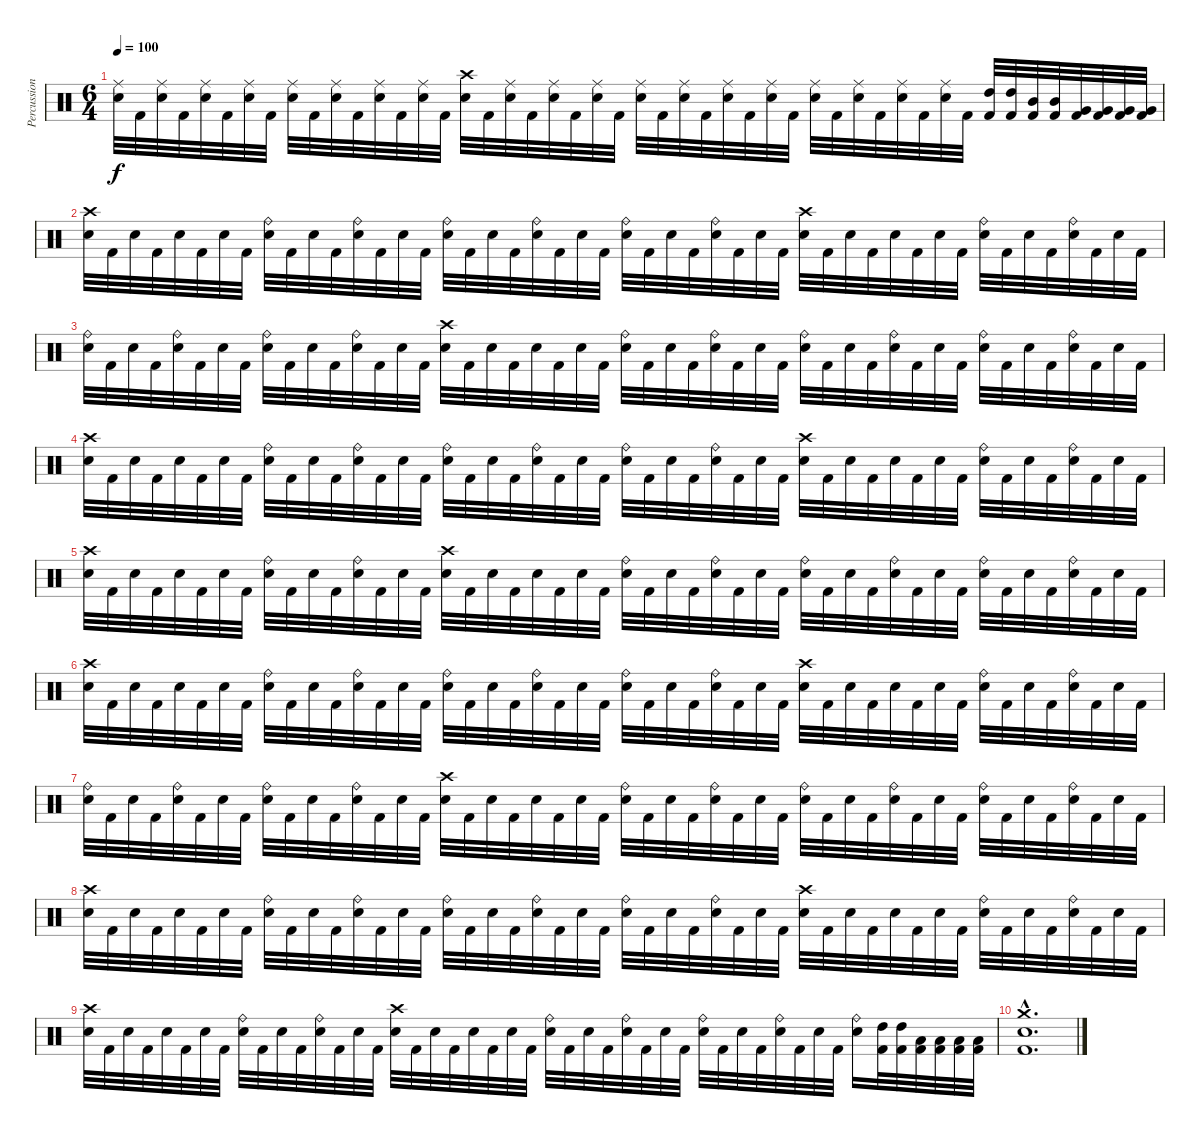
\track ("Percussion" "Percussion") {instrument percussion}
\staff {score}
\articulation defaults
\ts (6 4)
\tempo 100
\clef neutral
\ks c
("Ride (middle)" "Electric Snare (hit)").32{dy f} "Kick (hit) 2".32 ("Ride (middle)" "Electric Snare (hit)").32 "Kick (hit) 2".32 ("Ride (middle)" "Electric Snare (hit)").32 "Kick (hit) 2".32 ("Ride (middle)" "Electric Snare (hit)").32 "Kick (hit) 2".32 ("Ride (middle)" "Electric Snare (hit)").32 "Kick (hit) 2".32 ("Ride (middle)" "Electric Snare (hit)").32 "Kick (hit) 2".32 ("Ride (middle)" "Electric Snare (hit)").32 "Kick (hit) 2".32 ("Ride (middle)" "Electric Snare (hit)").32 "Kick (hit) 2".32 ("Crash high (hit)" "Electric Snare (hit)").32 "Kick (hit) 2".32 ("Ride (middle)" "Electric Snare (hit)").32 "Kick (hit) 2".32 ("Ride (middle)" "Electric Snare (hit)").32 "Kick (hit) 2".32 ("Ride (middle)" "Electric Snare (hit)").32 "Kick (hit) 2".32 ("Ride (middle)" "Electric Snare (hit)").32 "Kick (hit) 2".32 ("Ride (middle)" "Electric Snare (hit)").32 "Kick (hit) 2".32 ("Ride (middle)" "Electric Snare (hit)").32 "Kick (hit) 2".32 ("Ride (middle)" "Electric Snare (hit)").32 "Kick (hit) 2".32 ("Ride (middle)" "Electric Snare (hit)").32 "Kick (hit) 2".32 ("Ride (middle)" "Electric Snare (hit)").32 "Kick (hit) 2".32 ("Ride (middle)" "Electric Snare (hit)").32 "Kick (hit) 2".32 ("Ride (middle)" "Electric Snare (hit)").32 "Kick (hit) 2".32 ("High Tom (hit)" "Kick (hit) 2").32 ("High Tom (hit)" "Kick (hit) 2").32 ("Mid Tom (hit)" "Kick (hit) 2").32 ("Mid Tom (hit)" "Kick (hit) 2").32 ("Very Low Tom (hit)" "Kick (hit) 2").32 ("Very Low Tom (hit)" "Kick (hit) 2").32 ("Very Low Tom (hit)" "Kick (hit) 2").32 ("Very Low Tom (hit)" "Kick (hit) 2").32 |
("Crash high (hit)" "Electric Snare (hit)").32 "Kick (hit) 2".32 "Electric Snare (hit)".32 "Kick (hit) 2".32 "Electric Snare (hit)".32 "Kick (hit) 2".32 "Electric Snare (hit)".32 "Kick (hit) 2".32 ("Ride (bell)" "Electric Snare (hit)").32 "Kick (hit) 2".32 "Electric Snare (hit)".32 "Kick (hit) 2".32 ("Ride (bell)" "Electric Snare (hit)").32 "Kick (hit) 2".32 "Electric Snare (hit)".32 "Kick (hit) 2".32 ("Ride (bell)" "Electric Snare (hit)").32 "Kick (hit) 2".32 "Electric Snare (hit)".32 "Kick (hit) 2".32 ("Ride (bell)" "Electric Snare (hit)").32 "Kick (hit) 2".32 "Electric Snare (hit)".32 "Kick (hit) 2".32 ("Ride (bell)" "Electric Snare (hit)").32 "Kick (hit) 2".32 "Electric Snare (hit)".32 "Kick (hit) 2".32 ("Ride (bell)" "Electric Snare (hit)").32 "Kick (hit) 2".32 "Electric Snare (hit)".32 "Kick (hit) 2".32 ("Crash high (hit)" "Electric Snare (hit)").32 "Kick (hit) 2".32 "Electric Snare (hit)".32 "Kick (hit) 2".32 "Electric Snare (hit)".32 "Kick (hit) 2".32 "Electric Snare (hit)".32 "Kick (hit) 2".32 ("Ride (bell)" "Electric Snare (hit)").32 "Kick (hit) 2".32 "Electric Snare (hit)".32 "Kick (hit) 2".32 ("Ride (bell)" "Electric Snare (hit)").32 "Kick (hit) 2".32 "Electric Snare (hit)".32 "Kick (hit) 2".32 |
("Ride (bell)" "Electric Snare (hit)").32 "Kick (hit) 2".32 "Electric Snare (hit)".32 "Kick (hit) 2".32 ("Ride (bell)" "Electric Snare (hit)").32 "Kick (hit) 2".32 "Electric Snare (hit)".32 "Kick (hit) 2".32 ("Ride (bell)" "Electric Snare (hit)").32 "Kick (hit) 2".32 "Electric Snare (hit)".32 "Kick (hit) 2".32 ("Ride (bell)" "Electric Snare (hit)").32 "Kick (hit) 2".32 "Electric Snare (hit)".32 "Kick (hit) 2".32 ("Crash high (hit)" "Electric Snare (hit)").32 "Kick (hit) 2".32 "Electric Snare (hit)".32 "Kick (hit) 2".32 "Electric Snare (hit)".32 "Kick (hit) 2".32 "Electric Snare (hit)".32 "Kick (hit) 2".32 ("Ride (bell)" "Electric Snare (hit)").32 "Kick (hit) 2".32 "Electric Snare (hit)".32 "Kick (hit) 2".32 ("Ride (bell)" "Electric Snare (hit)").32 "Kick (hit) 2".32 "Electric Snare (hit)".32 "Kick (hit) 2".32 ("Ride (bell)" "Electric Snare (hit)").32 "Kick (hit) 2".32 "Electric Snare (hit)".32 "Kick (hit) 2".32 ("Ride (bell)" "Electric Snare (hit)").32 "Kick (hit) 2".32 "Electric Snare (hit)".32 "Kick (hit) 2".32 ("Ride (bell)" "Electric Snare (hit)").32 "Kick (hit) 2".32 "Electric Snare (hit)".32 "Kick (hit) 2".32 ("Ride (bell)" "Electric Snare (hit)").32 "Kick (hit) 2".32 "Electric Snare (hit)".32 "Kick (hit) 2".32 |
("Crash high (hit)" "Electric Snare (hit)").32 "Kick (hit) 2".32 "Electric Snare (hit)".32 "Kick (hit) 2".32 "Electric Snare (hit)".32 "Kick (hit) 2".32 "Electric Snare (hit)".32 "Kick (hit) 2".32 ("Ride (bell)" "Electric Snare (hit)").32 "Kick (hit) 2".32 "Electric Snare (hit)".32 "Kick (hit) 2".32 ("Ride (bell)" "Electric Snare (hit)").32 "Kick (hit) 2".32 "Electric Snare (hit)".32 "Kick (hit) 2".32 ("Ride (bell)" "Electric Snare (hit)").32 "Kick (hit) 2".32 "Electric Snare (hit)".32 "Kick (hit) 2".32 ("Ride (bell)" "Electric Snare (hit)").32 "Kick (hit) 2".32 "Electric Snare (hit)".32 "Kick (hit) 2".32 ("Ride (bell)" "Electric Snare (hit)").32 "Kick (hit) 2".32 "Electric Snare (hit)".32 "Kick (hit) 2".32 ("Ride (bell)" "Electric Snare (hit)").32 "Kick (hit) 2".32 "Electric Snare (hit)".32 "Kick (hit) 2".32 ("Crash high (hit)" "Electric Snare (hit)").32 "Kick (hit) 2".32 "Electric Snare (hit)".32 "Kick (hit) 2".32 "Electric Snare (hit)".32 "Kick (hit) 2".32 "Electric Snare (hit)".32 "Kick (hit) 2".32 ("Ride (bell)" "Electric Snare (hit)").32 "Kick (hit) 2".32 "Electric Snare (hit)".32 "Kick (hit) 2".32 ("Ride (bell)" "Electric Snare (hit)").32 "Kick (hit) 2".32 "Electric Snare (hit)".32 "Kick (hit) 2".32 |
("Crash high (hit)" "Electric Snare (hit)").32 "Kick (hit) 2".32 "Electric Snare (hit)".32 "Kick (hit) 2".32 "Electric Snare (hit)".32 "Kick (hit) 2".32 "Electric Snare (hit)".32 "Kick (hit) 2".32 ("Ride (bell)" "Electric Snare (hit)").32 "Kick (hit) 2".32 "Electric Snare (hit)".32 "Kick (hit) 2".32 ("Ride (bell)" "Electric Snare (hit)").32 "Kick (hit) 2".32 "Electric Snare (hit)".32 "Kick (hit) 2".32 ("Crash high (hit)" "Electric Snare (hit)").32 "Kick (hit) 2".32 "Electric Snare (hit)".32 "Kick (hit) 2".32 "Electric Snare (hit)".32 "Kick (hit) 2".32 "Electric Snare (hit)".32 "Kick (hit) 2".32 ("Ride (bell)" "Electric Snare (hit)").32 "Kick (hit) 2".32 "Electric Snare (hit)".32 "Kick (hit) 2".32 ("Ride (bell)" "Electric Snare (hit)").32 "Kick (hit) 2".32 "Electric Snare (hit)".32 "Kick (hit) 2".32 ("Ride (bell)" "Electric Snare (hit)").32 "Kick (hit) 2".32 "Electric Snare (hit)".32 "Kick (hit) 2".32 ("Ride (bell)" "Electric Snare (hit)").32 "Kick (hit) 2".32 "Electric Snare (hit)".32 "Kick (hit) 2".32 ("Ride (bell)" "Electric Snare (hit)").32 "Kick (hit) 2".32 "Electric Snare (hit)".32 "Kick (hit) 2".32 ("Ride (bell)" "Electric Snare (hit)").32 "Kick (hit) 2".32 "Electric Snare (hit)".32 "Kick (hit) 2".32 |
("Crash high (hit)" "Electric Snare (hit)").32 "Kick (hit) 2".32 "Electric Snare (hit)".32 "Kick (hit) 2".32 "Electric Snare (hit)".32 "Kick (hit) 2".32 "Electric Snare (hit)".32 "Kick (hit) 2".32 ("Ride (bell)" "Electric Snare (hit)").32 "Kick (hit) 2".32 "Electric Snare (hit)".32 "Kick (hit) 2".32 ("Ride (bell)" "Electric Snare (hit)").32 "Kick (hit) 2".32 "Electric Snare (hit)".32 "Kick (hit) 2".32 ("Ride (bell)" "Electric Snare (hit)").32 "Kick (hit) 2".32 "Electric Snare (hit)".32 "Kick (hit) 2".32 ("Ride (bell)" "Electric Snare (hit)").32 "Kick (hit) 2".32 "Electric Snare (hit)".32 "Kick (hit) 2".32 ("Ride (bell)" "Electric Snare (hit)").32 "Kick (hit) 2".32 "Electric Snare (hit)".32 "Kick (hit) 2".32 ("Ride (bell)" "Electric Snare (hit)").32 "Kick (hit) 2".32 "Electric Snare (hit)".32 "Kick (hit) 2".32 ("Crash high (hit)" "Electric Snare (hit)").32 "Kick (hit) 2".32 "Electric Snare (hit)".32 "Kick (hit) 2".32 "Electric Snare (hit)".32 "Kick (hit) 2".32 "Electric Snare (hit)".32 "Kick (hit) 2".32 ("Ride (bell)" "Electric Snare (hit)").32 "Kick (hit) 2".32 "Electric Snare (hit)".32 "Kick (hit) 2".32 ("Ride (bell)" "Electric Snare (hit)").32 "Kick (hit) 2".32 "Electric Snare (hit)".32 "Kick (hit) 2".32 |
("Ride (bell)" "Electric Snare (hit)").32 "Kick (hit) 2".32 "Electric Snare (hit)".32 "Kick (hit) 2".32 ("Ride (bell)" "Electric Snare (hit)").32 "Kick (hit) 2".32 "Electric Snare (hit)".32 "Kick (hit) 2".32 ("Ride (bell)" "Electric Snare (hit)").32 "Kick (hit) 2".32 "Electric Snare (hit)".32 "Kick (hit) 2".32 ("Ride (bell)" "Electric Snare (hit)").32 "Kick (hit) 2".32 "Electric Snare (hit)".32 "Kick (hit) 2".32 ("Crash high (hit)" "Electric Snare (hit)").32 "Kick (hit) 2".32 "Electric Snare (hit)".32 "Kick (hit) 2".32 "Electric Snare (hit)".32 "Kick (hit) 2".32 "Electric Snare (hit)".32 "Kick (hit) 2".32 ("Ride (bell)" "Electric Snare (hit)").32 "Kick (hit) 2".32 "Electric Snare (hit)".32 "Kick (hit) 2".32 ("Ride (bell)" "Electric Snare (hit)").32 "Kick (hit) 2".32 "Electric Snare (hit)".32 "Kick (hit) 2".32 ("Ride (bell)" "Electric Snare (hit)").32 "Kick (hit) 2".32 "Electric Snare (hit)".32 "Kick (hit) 2".32 ("Ride (bell)" "Electric Snare (hit)").32 "Kick (hit) 2".32 "Electric Snare (hit)".32 "Kick (hit) 2".32 ("Ride (bell)" "Electric Snare (hit)").32 "Kick (hit) 2".32 "Electric Snare (hit)".32 "Kick (hit) 2".32 ("Ride (bell)" "Electric Snare (hit)").32 "Kick (hit) 2".32 "Electric Snare (hit)".32 "Kick (hit) 2".32 |
("Crash high (hit)" "Electric Snare (hit)").32 "Kick (hit) 2".32 "Electric Snare (hit)".32 "Kick (hit) 2".32 "Electric Snare (hit)".32 "Kick (hit) 2".32 "Electric Snare (hit)".32 "Kick (hit) 2".32 ("Ride (bell)" "Electric Snare (hit)").32 "Kick (hit) 2".32 "Electric Snare (hit)".32 "Kick (hit) 2".32 ("Ride (bell)" "Electric Snare (hit)").32 "Kick (hit) 2".32 "Electric Snare (hit)".32 "Kick (hit) 2".32 ("Ride (bell)" "Electric Snare (hit)").32 "Kick (hit) 2".32 "Electric Snare (hit)".32 "Kick (hit) 2".32 ("Ride (bell)" "Electric Snare (hit)").32 "Kick (hit) 2".32 "Electric Snare (hit)".32 "Kick (hit) 2".32 ("Ride (bell)" "Electric Snare (hit)").32 "Kick (hit) 2".32 "Electric Snare (hit)".32 "Kick (hit) 2".32 ("Ride (bell)" "Electric Snare (hit)").32 "Kick (hit) 2".32 "Electric Snare (hit)".32 "Kick (hit) 2".32 ("Crash high (hit)" "Electric Snare (hit)").32 "Kick (hit) 2".32 "Electric Snare (hit)".32 "Kick (hit) 2".32 "Electric Snare (hit)".32 "Kick (hit) 2".32 "Electric Snare (hit)".32 "Kick (hit) 2".32 ("Ride (bell)" "Electric Snare (hit)").32 "Kick (hit) 2".32 "Electric Snare (hit)".32 "Kick (hit) 2".32 ("Ride (bell)" "Electric Snare (hit)").32 "Kick (hit) 2".32 "Electric Snare (hit)".32 "Kick (hit) 2".32 |
("Crash high (hit)" "Electric Snare (hit)").32 "Kick (hit) 2".32 "Electric Snare (hit)".32 "Kick (hit) 2".32 "Electric Snare (hit)".32 "Kick (hit) 2".32 "Electric Snare (hit)".32 "Kick (hit) 2".32 ("Ride (bell)" "Electric Snare (hit)").32 "Kick (hit) 2".32 "Electric Snare (hit)".32 "Kick (hit) 2".32 ("Ride (bell)" "Electric Snare (hit)").32 "Kick (hit) 2".32 "Electric Snare (hit)".32 "Kick (hit) 2".32 ("Crash high (hit)" "Electric Snare (hit)").32 "Kick (hit) 2".32 "Electric Snare (hit)".32 "Kick (hit) 2".32 "Electric Snare (hit)".32 "Kick (hit) 2".32 "Electric Snare (hit)".32 "Kick (hit) 2".32 ("Ride (bell)" "Electric Snare (hit)").32 "Kick (hit) 2".32 "Electric Snare (hit)".32 "Kick (hit) 2".32 ("Ride (bell)" "Electric Snare (hit)").32 "Kick (hit) 2".32 "Electric Snare (hit)".32 "Kick (hit) 2".32 ("Ride (bell)" "Electric Snare (hit)").32 "Kick (hit) 2".32 "Electric Snare (hit)".32 "Kick (hit) 2".32 ("Ride (bell)" "Electric Snare (hit)").32 "Kick (hit) 2".32 "Electric Snare (hit)".32 "Kick (hit) 2".32 ("Ride (bell)" "Electric Snare (hit)").16 ("High Tom (hit)" "Kick (hit) 2").32 ("High Tom (hit)" "Kick (hit) 2").32 ("Low Tom (hit)" "Kick (hit) 2").32 ("Low Tom (hit)" "Kick (hit) 2").32 ("Low Floor Tom (hit)" "Kick (hit) 2").32 ("Low Floor Tom (hit)" "Kick (hit) 2").32 |
("Crash medium (hit)"{hac} "Electric Snare (hit)"{hac} "Kick (hit) 2"{hac}).1{d}
